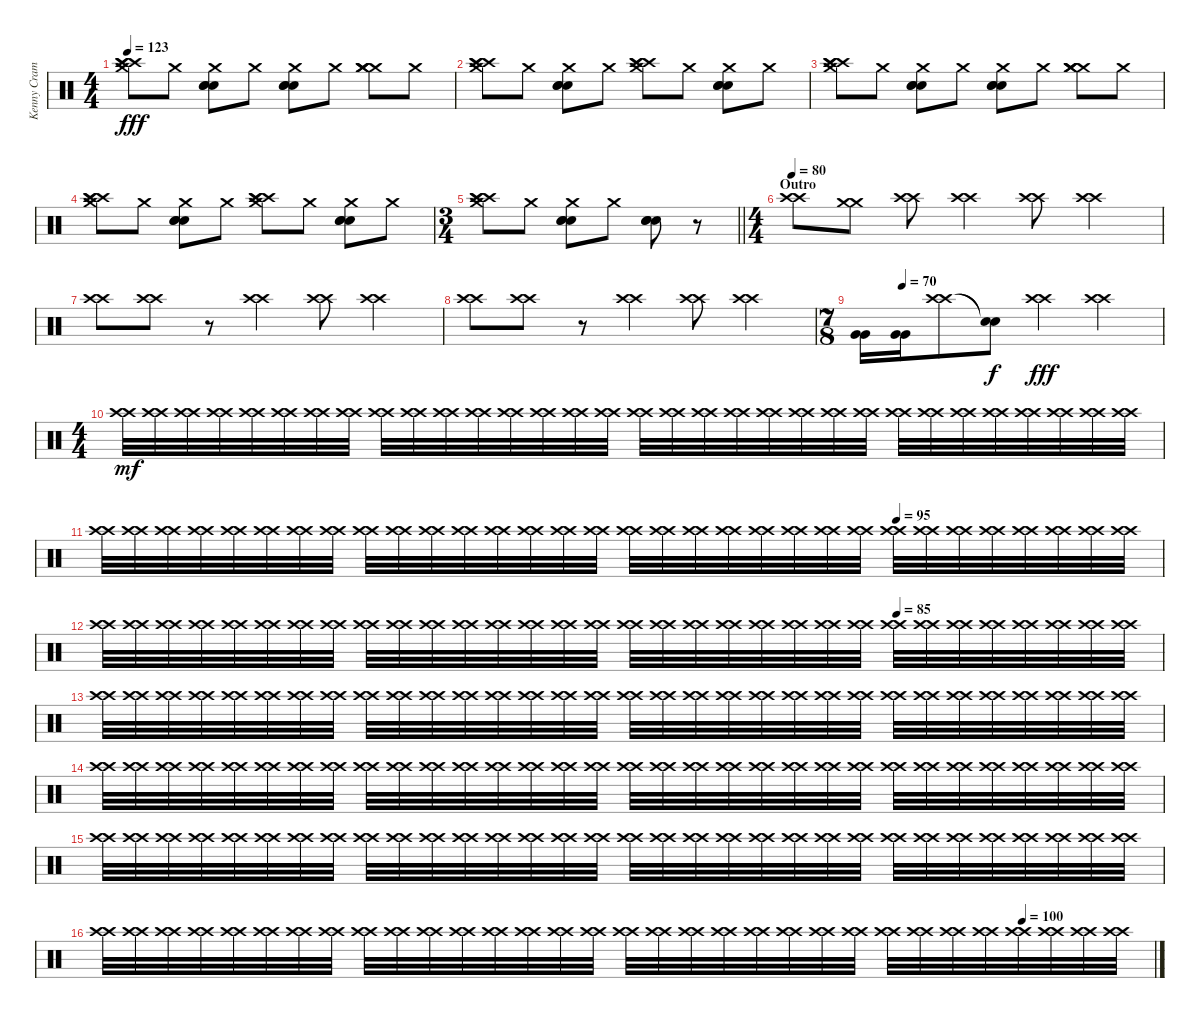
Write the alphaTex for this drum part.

\track ("Kenny Cramme - Drums" "Kenny Cram") {instrument percussion}
\staff {score}
\articulation defaults
\ts (4 4)
\tempo 123
\clef neutral
\ks c
("Crash medium (hit)" "Crash high (hit)" "Crash high (hit)" "Crash high (hit)").8{dy fff} "Crash medium (hit)".8 ("Crash medium (hit)" "Snare (hit) 2" "Snare (hit) 2" "Snare (hit) 2").8 "Crash medium (hit)".8 ("Crash medium (hit)" "Snare (hit) 2" "Snare (hit) 2" "Snare (hit) 2").8 "Crash medium (hit)".8 ("Crash medium (hit)" "Crash medium (hit)" "Crash medium (hit)" "Crash medium (hit)").8 "Crash medium (hit)".8 |
("Crash medium (hit)" "Crash high (hit)" "Crash high (hit)" "Crash high (hit)").8 "Crash medium (hit)".8 ("Crash medium (hit)" "Snare (hit) 2" "Snare (hit) 2" "Snare (hit) 2").8 "Crash medium (hit)".8 ("Crash medium (hit)" "Crash high (hit)" "Crash high (hit)" "Crash high (hit)").8 "Crash medium (hit)".8 ("Crash medium (hit)" "Snare (hit) 2" "Snare (hit) 2" "Snare (hit) 2").8 "Crash medium (hit)".8 |
("Crash medium (hit)" "Crash high (hit)" "Crash high (hit)" "Crash high (hit)").8 "Crash medium (hit)".8 ("Crash medium (hit)" "Snare (hit) 2" "Snare (hit) 2" "Snare (hit) 2").8 "Crash medium (hit)".8 ("Crash medium (hit)" "Snare (hit) 2" "Snare (hit) 2" "Snare (hit) 2").8 "Crash medium (hit)".8 ("Crash medium (hit)" "Crash medium (hit)" "Crash medium (hit)" "Crash medium (hit)").8 "Crash medium (hit)".8 |
("Crash medium (hit)" "Crash high (hit)" "Crash high (hit)" "Crash high (hit)").8 "Crash medium (hit)".8 ("Crash medium (hit)" "Snare (hit) 2" "Snare (hit) 2" "Snare (hit) 2").8 "Crash medium (hit)".8 ("Crash medium (hit)" "Crash high (hit)" "Crash high (hit)" "Crash high (hit)").8 "Crash medium (hit)".8 ("Crash medium (hit)" "Snare (hit) 2" "Snare (hit) 2" "Snare (hit) 2").8 "Crash medium (hit)".8 |
\ts (3 4)
\barLineRight lightlight
("Crash medium (hit)" "Crash high (hit)" "Crash high (hit)" "Crash high (hit)").8 "Crash medium (hit)".8 ("Crash medium (hit)" "Snare (hit) 2" "Snare (hit) 2" "Snare (hit) 2").8 "Crash medium (hit)".8 ("Snare (hit) 2" "Snare (hit) 2" "Snare (hit) 2").8 r.8 |
\ts (4 4)
\section ("" "Outro")
\tempo 80
("Crash high (hit)" "Crash high (hit)").8 ("Crash medium (hit)" "Crash medium (hit)").8 ("Crash high (hit)" "Crash high (hit)").8 ("Crash high (hit)" "Crash high (hit)").4 ("Crash high (hit)" "Crash high (hit)").8 ("Crash high (hit)" "Crash high (hit)").4 |
("Crash high (hit)" "Crash high (hit)").8 ("Crash high (hit)" "Crash high (hit)").8 r.8 ("Crash high (hit)" "Crash high (hit)").4 ("Crash high (hit)" "Crash high (hit)").8 ("Crash high (hit)" "Crash high (hit)").4 |
("Crash high (hit)" "Crash high (hit)").8 ("Crash high (hit)" "Crash high (hit)").8 r.8 ("Crash high (hit)" "Crash high (hit)").4 ("Crash high (hit)" "Crash high (hit)").8 ("Crash high (hit)" "Crash high (hit)").4 |
\ts (7 8)
\tempo (70 0.14285714285714285)
("Very Low Tom (hit)" "Very Low Tom (hit)").16 ("Very Low Tom (hit)" "Very Low Tom (hit)").16 ("Crash high (hit)" "Crash high (hit)").8 ("Snare (hit)"{t} "Snare (hit)"{t}).8{dy f} ("Crash high (hit)" "Crash high (hit)").4{dy fff} ("Crash high (hit)" "Crash high (hit)").4 |
\ts (4 4)
("Crash high (hit)" "Crash high (hit)").32{dy mf} ("Crash high (hit)" "Crash high (hit)").32 ("Crash high (hit)" "Crash high (hit)").32 ("Crash high (hit)" "Crash high (hit)").32 ("Crash high (hit)" "Crash high (hit)").32 ("Crash high (hit)" "Crash high (hit)").32 ("Crash high (hit)" "Crash high (hit)").32 ("Crash high (hit)" "Crash high (hit)").32 ("Crash high (hit)" "Crash high (hit)").32 ("Crash high (hit)" "Crash high (hit)").32 ("Crash high (hit)" "Crash high (hit)").32 ("Crash high (hit)" "Crash high (hit)").32 ("Crash high (hit)" "Crash high (hit)").32 ("Crash high (hit)" "Crash high (hit)").32 ("Crash high (hit)" "Crash high (hit)").32 ("Crash high (hit)" "Crash high (hit)").32 ("Crash high (hit)" "Crash high (hit)").32 ("Crash high (hit)" "Crash high (hit)").32 ("Crash high (hit)" "Crash high (hit)").32 ("Crash high (hit)" "Crash high (hit)").32 ("Crash high (hit)" "Crash high (hit)").32 ("Crash high (hit)" "Crash high (hit)").32 ("Crash high (hit)" "Crash high (hit)").32 ("Crash high (hit)" "Crash high (hit)").32 ("Crash high (hit)" "Crash high (hit)").32 ("Crash high (hit)" "Crash high (hit)").32 ("Crash high (hit)" "Crash high (hit)").32 ("Crash high (hit)" "Crash high (hit)").32 ("Crash high (hit)" "Crash high (hit)").32 ("Crash high (hit)" "Crash high (hit)").32 ("Crash high (hit)" "Crash high (hit)").32 ("Crash high (hit)" "Crash high (hit)").32 |
\tempo (95 0.75)
("Crash high (hit)" "Crash high (hit)").32 ("Crash high (hit)" "Crash high (hit)").32 ("Crash high (hit)" "Crash high (hit)").32 ("Crash high (hit)" "Crash high (hit)").32 ("Crash high (hit)" "Crash high (hit)").32 ("Crash high (hit)" "Crash high (hit)").32 ("Crash high (hit)" "Crash high (hit)").32 ("Crash high (hit)" "Crash high (hit)").32 ("Crash high (hit)" "Crash high (hit)").32 ("Crash high (hit)" "Crash high (hit)").32 ("Crash high (hit)" "Crash high (hit)").32 ("Crash high (hit)" "Crash high (hit)").32 ("Crash high (hit)" "Crash high (hit)").32 ("Crash high (hit)" "Crash high (hit)").32 ("Crash high (hit)" "Crash high (hit)").32 ("Crash high (hit)" "Crash high (hit)").32 ("Crash high (hit)" "Crash high (hit)").32 ("Crash high (hit)" "Crash high (hit)").32 ("Crash high (hit)" "Crash high (hit)").32 ("Crash high (hit)" "Crash high (hit)").32 ("Crash high (hit)" "Crash high (hit)").32 ("Crash high (hit)" "Crash high (hit)").32 ("Crash high (hit)" "Crash high (hit)").32 ("Crash high (hit)" "Crash high (hit)").32 ("Crash high (hit)" "Crash high (hit)").32 ("Crash high (hit)" "Crash high (hit)").32 ("Crash high (hit)" "Crash high (hit)").32 ("Crash high (hit)" "Crash high (hit)").32 ("Crash high (hit)" "Crash high (hit)").32 ("Crash high (hit)" "Crash high (hit)").32 ("Crash high (hit)" "Crash high (hit)").32 ("Crash high (hit)" "Crash high (hit)").32 |
\tempo (85 0.75)
("Crash high (hit)" "Crash high (hit)").32 ("Crash high (hit)" "Crash high (hit)").32 ("Crash high (hit)" "Crash high (hit)").32 ("Crash high (hit)" "Crash high (hit)").32 ("Crash high (hit)" "Crash high (hit)").32 ("Crash high (hit)" "Crash high (hit)").32 ("Crash high (hit)" "Crash high (hit)").32 ("Crash high (hit)" "Crash high (hit)").32 ("Crash high (hit)" "Crash high (hit)").32 ("Crash high (hit)" "Crash high (hit)").32 ("Crash high (hit)" "Crash high (hit)").32 ("Crash high (hit)" "Crash high (hit)").32 ("Crash high (hit)" "Crash high (hit)").32 ("Crash high (hit)" "Crash high (hit)").32 ("Crash high (hit)" "Crash high (hit)").32 ("Crash high (hit)" "Crash high (hit)").32 ("Crash high (hit)" "Crash high (hit)").32 ("Crash high (hit)" "Crash high (hit)").32 ("Crash high (hit)" "Crash high (hit)").32 ("Crash high (hit)" "Crash high (hit)").32 ("Crash high (hit)" "Crash high (hit)").32 ("Crash high (hit)" "Crash high (hit)").32 ("Crash high (hit)" "Crash high (hit)").32 ("Crash high (hit)" "Crash high (hit)").32 ("Crash high (hit)" "Crash high (hit)").32 ("Crash high (hit)" "Crash high (hit)").32 ("Crash high (hit)" "Crash high (hit)").32 ("Crash high (hit)" "Crash high (hit)").32 ("Crash high (hit)" "Crash high (hit)").32 ("Crash high (hit)" "Crash high (hit)").32 ("Crash high (hit)" "Crash high (hit)").32 ("Crash high (hit)" "Crash high (hit)").32 |
("Crash high (hit)" "Crash high (hit)").32 ("Crash high (hit)" "Crash high (hit)").32 ("Crash high (hit)" "Crash high (hit)").32 ("Crash high (hit)" "Crash high (hit)").32 ("Crash high (hit)" "Crash high (hit)").32 ("Crash high (hit)" "Crash high (hit)").32 ("Crash high (hit)" "Crash high (hit)").32 ("Crash high (hit)" "Crash high (hit)").32 ("Crash high (hit)" "Crash high (hit)").32 ("Crash high (hit)" "Crash high (hit)").32 ("Crash high (hit)" "Crash high (hit)").32 ("Crash high (hit)" "Crash high (hit)").32 ("Crash high (hit)" "Crash high (hit)").32 ("Crash high (hit)" "Crash high (hit)").32 ("Crash high (hit)" "Crash high (hit)").32 ("Crash high (hit)" "Crash high (hit)").32 ("Crash high (hit)" "Crash high (hit)").32 ("Crash high (hit)" "Crash high (hit)").32 ("Crash high (hit)" "Crash high (hit)").32 ("Crash high (hit)" "Crash high (hit)").32 ("Crash high (hit)" "Crash high (hit)").32 ("Crash high (hit)" "Crash high (hit)").32 ("Crash high (hit)" "Crash high (hit)").32 ("Crash high (hit)" "Crash high (hit)").32 ("Crash high (hit)" "Crash high (hit)").32 ("Crash high (hit)" "Crash high (hit)").32 ("Crash high (hit)" "Crash high (hit)").32 ("Crash high (hit)" "Crash high (hit)").32 ("Crash high (hit)" "Crash high (hit)").32 ("Crash high (hit)" "Crash high (hit)").32 ("Crash high (hit)" "Crash high (hit)").32 ("Crash high (hit)" "Crash high (hit)").32 |
("Crash high (hit)" "Crash high (hit)").32 ("Crash high (hit)" "Crash high (hit)").32 ("Crash high (hit)" "Crash high (hit)").32 ("Crash high (hit)" "Crash high (hit)").32 ("Crash high (hit)" "Crash high (hit)").32 ("Crash high (hit)" "Crash high (hit)").32 ("Crash high (hit)" "Crash high (hit)").32 ("Crash high (hit)" "Crash high (hit)").32 ("Crash high (hit)" "Crash high (hit)").32 ("Crash high (hit)" "Crash high (hit)").32 ("Crash high (hit)" "Crash high (hit)").32 ("Crash high (hit)" "Crash high (hit)").32 ("Crash high (hit)" "Crash high (hit)").32 ("Crash high (hit)" "Crash high (hit)").32 ("Crash high (hit)" "Crash high (hit)").32 ("Crash high (hit)" "Crash high (hit)").32 ("Crash high (hit)" "Crash high (hit)").32 ("Crash high (hit)" "Crash high (hit)").32 ("Crash high (hit)" "Crash high (hit)").32 ("Crash high (hit)" "Crash high (hit)").32 ("Crash high (hit)" "Crash high (hit)").32 ("Crash high (hit)" "Crash high (hit)").32 ("Crash high (hit)" "Crash high (hit)").32 ("Crash high (hit)" "Crash high (hit)").32 ("Crash high (hit)" "Crash high (hit)").32 ("Crash high (hit)" "Crash high (hit)").32 ("Crash high (hit)" "Crash high (hit)").32 ("Crash high (hit)" "Crash high (hit)").32 ("Crash high (hit)" "Crash high (hit)").32 ("Crash high (hit)" "Crash high (hit)").32 ("Crash high (hit)" "Crash high (hit)").32 ("Crash high (hit)" "Crash high (hit)").32 |
("Crash high (hit)" "Crash high (hit)").32 ("Crash high (hit)" "Crash high (hit)").32 ("Crash high (hit)" "Crash high (hit)").32 ("Crash high (hit)" "Crash high (hit)").32 ("Crash high (hit)" "Crash high (hit)").32 ("Crash high (hit)" "Crash high (hit)").32 ("Crash high (hit)" "Crash high (hit)").32 ("Crash high (hit)" "Crash high (hit)").32 ("Crash high (hit)" "Crash high (hit)").32 ("Crash high (hit)" "Crash high (hit)").32 ("Crash high (hit)" "Crash high (hit)").32 ("Crash high (hit)" "Crash high (hit)").32 ("Crash high (hit)" "Crash high (hit)").32 ("Crash high (hit)" "Crash high (hit)").32 ("Crash high (hit)" "Crash high (hit)").32 ("Crash high (hit)" "Crash high (hit)").32 ("Crash high (hit)" "Crash high (hit)").32 ("Crash high (hit)" "Crash high (hit)").32 ("Crash high (hit)" "Crash high (hit)").32 ("Crash high (hit)" "Crash high (hit)").32 ("Crash high (hit)" "Crash high (hit)").32 ("Crash high (hit)" "Crash high (hit)").32 ("Crash high (hit)" "Crash high (hit)").32 ("Crash high (hit)" "Crash high (hit)").32 ("Crash high (hit)" "Crash high (hit)").32 ("Crash high (hit)" "Crash high (hit)").32 ("Crash high (hit)" "Crash high (hit)").32 ("Crash high (hit)" "Crash high (hit)").32 ("Crash high (hit)" "Crash high (hit)").32 ("Crash high (hit)" "Crash high (hit)").32 ("Crash high (hit)" "Crash high (hit)").32 ("Crash high (hit)" "Crash high (hit)").32 |
\tempo (100 0.875)
("Crash high (hit)" "Crash high (hit)").32 ("Crash high (hit)" "Crash high (hit)").32 ("Crash high (hit)" "Crash high (hit)").32 ("Crash high (hit)" "Crash high (hit)").32 ("Crash high (hit)" "Crash high (hit)").32 ("Crash high (hit)" "Crash high (hit)").32 ("Crash high (hit)" "Crash high (hit)").32 ("Crash high (hit)" "Crash high (hit)").32 ("Crash high (hit)" "Crash high (hit)").32 ("Crash high (hit)" "Crash high (hit)").32 ("Crash high (hit)" "Crash high (hit)").32 ("Crash high (hit)" "Crash high (hit)").32 ("Crash high (hit)" "Crash high (hit)").32 ("Crash high (hit)" "Crash high (hit)").32 ("Crash high (hit)" "Crash high (hit)").32 ("Crash high (hit)" "Crash high (hit)").32 ("Crash high (hit)" "Crash high (hit)").32 ("Crash high (hit)" "Crash high (hit)").32 ("Crash high (hit)" "Crash high (hit)").32 ("Crash high (hit)" "Crash high (hit)").32 ("Crash high (hit)" "Crash high (hit)").32 ("Crash high (hit)" "Crash high (hit)").32 ("Crash high (hit)" "Crash high (hit)").32 ("Crash high (hit)" "Crash high (hit)").32 ("Crash high (hit)" "Crash high (hit)").32 ("Crash high (hit)" "Crash high (hit)").32 ("Crash high (hit)" "Crash high (hit)").32 ("Crash high (hit)" "Crash high (hit)").32 ("Crash high (hit)" "Crash high (hit)").32 ("Crash high (hit)" "Crash high (hit)").32 ("Crash high (hit)" "Crash high (hit)").32 ("Crash high (hit)" "Crash high (hit)").32
